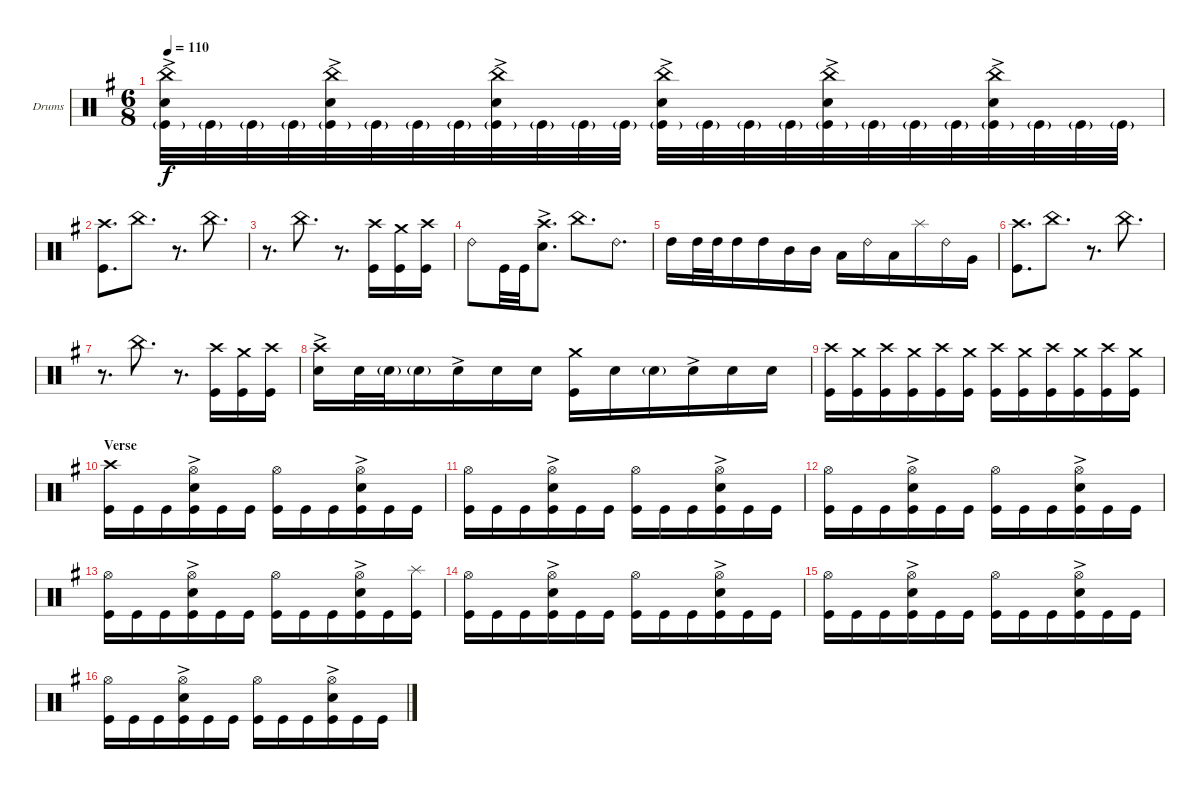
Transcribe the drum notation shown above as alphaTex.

\bracketExtendMode groupsimilarinstruments
\firstSystemTrackNameOrientation horizontal
\otherSystemsTrackNameOrientation horizontal
\track ("Drumkit" "Drums") {instrument percussion}
\staff {score}
\articulation defaults
\ts (6 8)
\tempo 110
\clef neutral
\ks eminor
("Kick (hit)"{g} "Snare (hit) 2"{ac} "China (hit)").32{dy f} "Kick (hit)"{g}.32 "Kick (hit)"{g}.32 "Kick (hit)"{g}.32 ("Kick (hit)"{g} "Snare (hit) 2"{ac} "China (hit)").32 "Kick (hit)"{g}.32 "Kick (hit)"{g}.32 "Kick (hit)"{g}.32 ("Kick (hit)"{g} "Snare (hit) 2"{ac} "China (hit)").32 "Kick (hit)"{g}.32 "Kick (hit)"{g}.32 "Kick (hit)"{g}.32 ("Kick (hit)"{g} "Snare (hit) 2"{ac} "China (hit)").32 "Kick (hit)"{g}.32 "Kick (hit)"{g}.32 "Kick (hit)"{g}.32 ("Kick (hit)"{g} "Snare (hit) 2"{ac} "China (hit)").32 "Kick (hit)"{g}.32 "Kick (hit)"{g}.32 "Kick (hit)"{g}.32 ("Kick (hit)"{g} "Snare (hit) 2"{ac} "China (hit)").32 "Kick (hit)"{g}.32 "Kick (hit)"{g}.32 "Kick (hit)"{g}.32 |
("Kick (hit)" "Crash high (hit)").8{d} "China (hit)".8{d} r.8{d} "China (hit)".8{d} |
r.8{d} "China (hit)".8{d} r.8{d} ("Kick (hit)" "Crash high (hit)").16 ("Kick (hit)" "Crash medium (hit)").16 ("Kick (hit)" "Crash high (hit)").16 |
"Ride (bell) 2".8 "Kick (hit)".32 "Kick (hit)".32 ("Snare (hit) 2"{ac} "Crash high (hit)").8{d} "China (hit)".8{d} "Ride (bell) 2".8{d} |
"High Tom (hit)".16 "High Tom (hit)".32 "High Tom (hit)".32 "High Tom (hit)".16 "High Tom (hit)".16 "Mid Tom (hit)".16 "Mid Tom (hit)".16 "Low Tom (hit)".16 "Ride (bell) 2".16 "Low Tom (hit)".16 "Splash (hit)".16 "Ride (bell) 2".16 "Very Low Tom (hit)".16 |
("Kick (hit)" "Crash high (hit)").8{d} "China (hit)".8{d} r.8{d} "China (hit)".8{d} |
r.8{d} "China (hit)".8{d} r.8{d} ("Kick (hit)" "Crash high (hit)").16 ("Kick (hit)" "Crash medium (hit)").16 ("Kick (hit)" "Crash high (hit)").16 |
("Snare (hit) 2"{ac} "Crash high (hit)").16 "Snare (hit) 2".32 "Snare (hit) 2"{g}.32 "Snare (hit) 2"{g}.16 "Snare (hit) 2"{ac}.16 "Snare (hit) 2".16 "Snare (hit) 2".16 ("Kick (hit)" "Crash medium (hit)").16 "Snare (hit) 2".16 "Snare (hit) 2"{g}.16 "Snare (hit) 2"{ac}.16 "Snare (hit) 2".16 "Snare (hit) 2".16 |
("Kick (hit)" "Crash high (hit)").16 ("Kick (hit)" "Crash medium (hit)").16 ("Kick (hit)" "Crash high (hit)").16 ("Kick (hit)" "Crash medium (hit)").16 ("Kick (hit)" "Crash high (hit)").16 ("Kick (hit)" "Crash medium (hit)").16 ("Kick (hit)" "Crash high (hit)").16 ("Kick (hit)" "Crash medium (hit)").16 ("Kick (hit)" "Crash high (hit)").16 ("Kick (hit)" "Crash medium (hit)").16 ("Kick (hit)" "Crash high (hit)").16 ("Kick (hit)" "Crash medium (hit)").16 |
\section ("" "Verse")
("Kick (hit)" "Crash high (hit)").16 "Kick (hit)".16 "Kick (hit)".16 ("Kick (hit)" "Hi-Hat (open)" "Snare (hit) 2"{ac}).16 "Kick (hit)".16 "Kick (hit)".16 ("Kick (hit)" "Hi-Hat (open)").16 "Kick (hit)".16 "Kick (hit)".16 ("Kick (hit)" "Hi-Hat (open)" "Snare (hit) 2"{ac}).16 "Kick (hit)".16 "Kick (hit)".16 |
("Kick (hit)" "Hi-Hat (open)").16 "Kick (hit)".16 "Kick (hit)".16 ("Kick (hit)" "Hi-Hat (open)" "Snare (hit) 2"{ac}).16 "Kick (hit)".16 "Kick (hit)".16 ("Kick (hit)" "Hi-Hat (open)").16 "Kick (hit)".16 "Kick (hit)".16 ("Kick (hit)" "Hi-Hat (open)" "Snare (hit) 2"{ac}).16 "Kick (hit)".16 "Kick (hit)".16 |
("Kick (hit)" "Hi-Hat (open)").16 "Kick (hit)".16 "Kick (hit)".16 ("Kick (hit)" "Hi-Hat (open)" "Snare (hit) 2"{ac}).16 "Kick (hit)".16 "Kick (hit)".16 ("Kick (hit)" "Hi-Hat (open)").16 "Kick (hit)".16 "Kick (hit)".16 ("Kick (hit)" "Hi-Hat (open)" "Snare (hit) 2"{ac}).16 "Kick (hit)".16 "Kick (hit)".16 |
("Kick (hit)" "Hi-Hat (open)").16 "Kick (hit)".16 "Kick (hit)".16 ("Kick (hit)" "Hi-Hat (open)" "Snare (hit) 2"{ac}).16 "Kick (hit)".16 "Kick (hit)".16 ("Kick (hit)" "Hi-Hat (open)").16 "Kick (hit)".16 "Kick (hit)".16 ("Kick (hit)" "Hi-Hat (open)" "Snare (hit) 2"{ac}).16 "Kick (hit)".16 ("Kick (hit)" "Splash (hit)").16 |
("Kick (hit)" "Hi-Hat (open)").16 "Kick (hit)".16 "Kick (hit)".16 ("Kick (hit)" "Hi-Hat (open)" "Snare (hit) 2"{ac}).16 "Kick (hit)".16 "Kick (hit)".16 ("Kick (hit)" "Hi-Hat (open)").16 "Kick (hit)".16 "Kick (hit)".16 ("Kick (hit)" "Hi-Hat (open)" "Snare (hit) 2"{ac}).16 "Kick (hit)".16 "Kick (hit)".16 |
("Kick (hit)" "Hi-Hat (open)").16 "Kick (hit)".16 "Kick (hit)".16 ("Kick (hit)" "Hi-Hat (open)" "Snare (hit) 2"{ac}).16 "Kick (hit)".16 "Kick (hit)".16 ("Kick (hit)" "Hi-Hat (open)").16 "Kick (hit)".16 "Kick (hit)".16 ("Kick (hit)" "Hi-Hat (open)" "Snare (hit) 2"{ac}).16 "Kick (hit)".16 "Kick (hit)".16 |
("Kick (hit)" "Hi-Hat (open)").16 "Kick (hit)".16 "Kick (hit)".16 ("Kick (hit)" "Hi-Hat (open)" "Snare (hit) 2"{ac}).16 "Kick (hit)".16 "Kick (hit)".16 ("Kick (hit)" "Hi-Hat (open)").16 "Kick (hit)".16 "Kick (hit)".16 ("Kick (hit)" "Hi-Hat (open)" "Snare (hit) 2"{ac}).16 "Kick (hit)".16 "Kick (hit)".16
